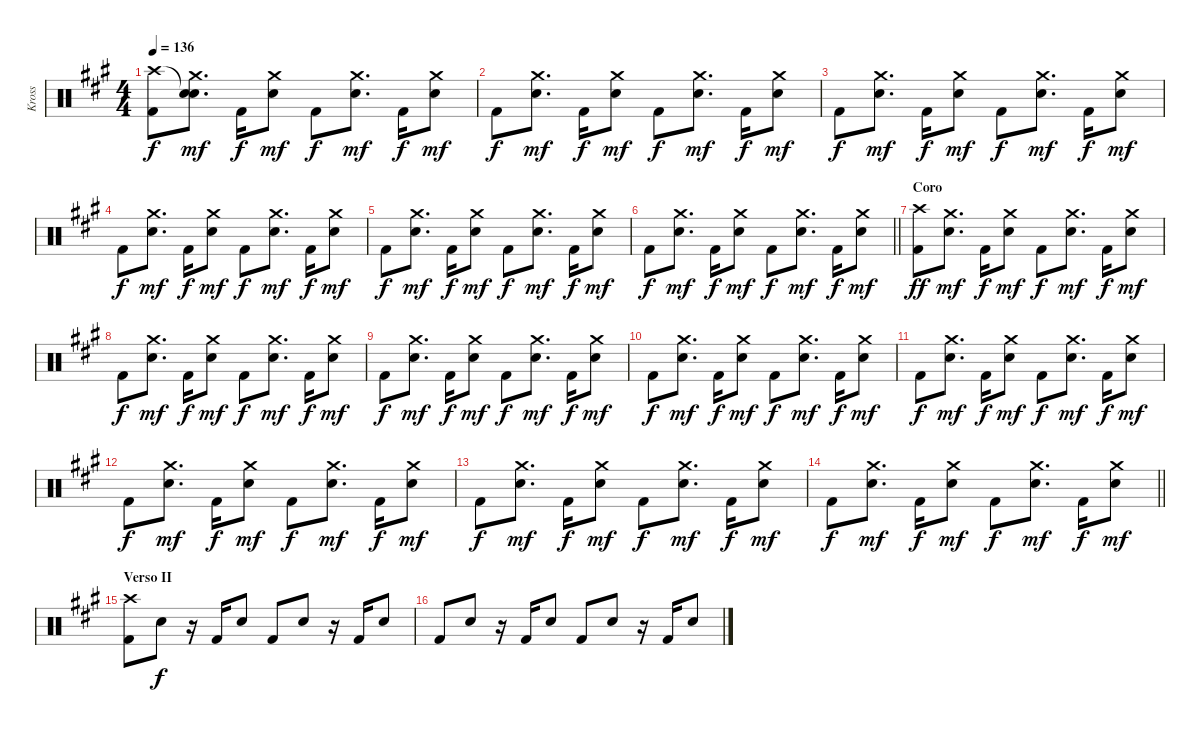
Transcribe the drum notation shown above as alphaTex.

\track ("Kross" "Kross") {instrument percussion}
\staff {score}
\articulation defaults
\ts (4 4)
\tempo 136
\clef neutral
\ks a
("Crash high (hit)" "Kick (hit) 2").8{dy f} ("Snare (hit)"{t} "Crash medium (hit)" "Snare (hit) 2").8{d dy mf} "Kick (hit) 2".16{dy f} ("Crash medium (hit)" "Snare (hit) 2").8{dy mf} "Kick (hit) 2".8{dy f} ("Crash medium (hit)" "Snare (hit) 2").8{d dy mf} "Kick (hit) 2".16{dy f} ("Crash medium (hit)" "Snare (hit) 2").8{dy mf} |
"Kick (hit) 2".8{dy f} ("Crash medium (hit)" "Snare (hit) 2").8{d dy mf} "Kick (hit) 2".16{dy f} ("Crash medium (hit)" "Snare (hit) 2").8{dy mf} "Kick (hit) 2".8{dy f} ("Crash medium (hit)" "Snare (hit) 2").8{d dy mf} "Kick (hit) 2".16{dy f} ("Crash medium (hit)" "Snare (hit) 2").8{dy mf} |
"Kick (hit) 2".8{dy f} ("Crash medium (hit)" "Snare (hit) 2").8{d dy mf} "Kick (hit) 2".16{dy f} ("Crash medium (hit)" "Snare (hit) 2").8{dy mf} "Kick (hit) 2".8{dy f} ("Crash medium (hit)" "Snare (hit) 2").8{d dy mf} "Kick (hit) 2".16{dy f} ("Crash medium (hit)" "Snare (hit) 2").8{dy mf} |
"Kick (hit) 2".8{dy f} ("Crash medium (hit)" "Snare (hit) 2").8{d dy mf} "Kick (hit) 2".16{dy f} ("Crash medium (hit)" "Snare (hit) 2").8{dy mf} "Kick (hit) 2".8{dy f} ("Crash medium (hit)" "Snare (hit) 2").8{d dy mf} "Kick (hit) 2".16{dy f} ("Crash medium (hit)" "Snare (hit) 2").8{dy mf} |
"Kick (hit) 2".8{dy f} ("Crash medium (hit)" "Snare (hit) 2").8{d dy mf} "Kick (hit) 2".16{dy f} ("Crash medium (hit)" "Snare (hit) 2").8{dy mf} "Kick (hit) 2".8{dy f} ("Crash medium (hit)" "Snare (hit) 2").8{d dy mf} "Kick (hit) 2".16{dy f} ("Crash medium (hit)" "Snare (hit) 2").8{dy mf} |
\barLineRight lightlight "Kick (hit) 2".8{dy f}
("Crash medium (hit)" "Snare (hit) 2").8{d dy mf} "Kick (hit) 2".16{dy f} ("Crash medium (hit)" "Snare (hit) 2").8{dy mf} "Kick (hit) 2".8{dy f} ("Crash medium (hit)" "Snare (hit) 2").8{d dy mf} "Kick (hit) 2".16{dy f} ("Crash medium (hit)" "Snare (hit) 2").8{dy mf} |
\section ("" "Coro")
("Crash high (hit)" "Kick (hit) 2").8{dy ff} ("Crash medium (hit)" "Snare (hit) 2").8{d dy mf} "Kick (hit) 2".16{dy f} ("Crash medium (hit)" "Snare (hit) 2").8{dy mf} "Kick (hit) 2".8{dy f} ("Crash medium (hit)" "Snare (hit) 2").8{d dy mf} "Kick (hit) 2".16{dy f} ("Crash medium (hit)" "Snare (hit) 2").8{dy mf} |
"Kick (hit) 2".8{dy f} ("Crash medium (hit)" "Snare (hit) 2").8{d dy mf} "Kick (hit) 2".16{dy f} ("Crash medium (hit)" "Snare (hit) 2").8{dy mf} "Kick (hit) 2".8{dy f} ("Crash medium (hit)" "Snare (hit) 2").8{d dy mf} "Kick (hit) 2".16{dy f} ("Crash medium (hit)" "Snare (hit) 2").8{dy mf} |
"Kick (hit) 2".8{dy f} ("Crash medium (hit)" "Snare (hit) 2").8{d dy mf} "Kick (hit) 2".16{dy f} ("Crash medium (hit)" "Snare (hit) 2").8{dy mf} "Kick (hit) 2".8{dy f} ("Crash medium (hit)" "Snare (hit) 2").8{d dy mf} "Kick (hit) 2".16{dy f} ("Crash medium (hit)" "Snare (hit) 2").8{dy mf} |
"Kick (hit) 2".8{dy f} ("Crash medium (hit)" "Snare (hit) 2").8{d dy mf} "Kick (hit) 2".16{dy f} ("Crash medium (hit)" "Snare (hit) 2").8{dy mf} "Kick (hit) 2".8{dy f} ("Crash medium (hit)" "Snare (hit) 2").8{d dy mf} "Kick (hit) 2".16{dy f} ("Crash medium (hit)" "Snare (hit) 2").8{dy mf} |
"Kick (hit) 2".8{dy f} ("Crash medium (hit)" "Snare (hit) 2").8{d dy mf} "Kick (hit) 2".16{dy f} ("Crash medium (hit)" "Snare (hit) 2").8{dy mf} "Kick (hit) 2".8{dy f} ("Crash medium (hit)" "Snare (hit) 2").8{d dy mf} "Kick (hit) 2".16{dy f} ("Crash medium (hit)" "Snare (hit) 2").8{dy mf} |
"Kick (hit) 2".8{dy f} ("Crash medium (hit)" "Snare (hit) 2").8{d dy mf} "Kick (hit) 2".16{dy f} ("Crash medium (hit)" "Snare (hit) 2").8{dy mf} "Kick (hit) 2".8{dy f} ("Crash medium (hit)" "Snare (hit) 2").8{d dy mf} "Kick (hit) 2".16{dy f} ("Crash medium (hit)" "Snare (hit) 2").8{dy mf} |
"Kick (hit) 2".8{dy f} ("Crash medium (hit)" "Snare (hit) 2").8{d dy mf} "Kick (hit) 2".16{dy f} ("Crash medium (hit)" "Snare (hit) 2").8{dy mf} "Kick (hit) 2".8{dy f} ("Crash medium (hit)" "Snare (hit) 2").8{d dy mf} "Kick (hit) 2".16{dy f} ("Crash medium (hit)" "Snare (hit) 2").8{dy mf} |
\barLineRight lightlight "Kick (hit) 2".8{dy f}
("Crash medium (hit)" "Snare (hit) 2").8{d dy mf} "Kick (hit) 2".16{dy f} ("Crash medium (hit)" "Snare (hit) 2").8{dy mf} "Kick (hit) 2".8{dy f} ("Crash medium (hit)" "Snare (hit) 2").8{d dy mf} "Kick (hit) 2".16{dy f} ("Crash medium (hit)" "Snare (hit) 2").8{dy mf} |
\section ("" "Verso II")
("Crash high (hit)" "Kick (hit) 2").8 "Snare (hit) 2".8{dy f} r.16 "Kick (hit) 2".16 "Snare (hit) 2".8 "Kick (hit) 2".8 "Snare (hit) 2".8 r.16 "Kick (hit) 2".16 "Snare (hit) 2".8 |
"Kick (hit) 2".8 "Snare (hit) 2".8 r.16 "Kick (hit) 2".16 "Snare (hit) 2".8 "Kick (hit) 2".8 "Snare (hit) 2".8 r.16 "Kick (hit) 2".16 "Snare (hit) 2".8
